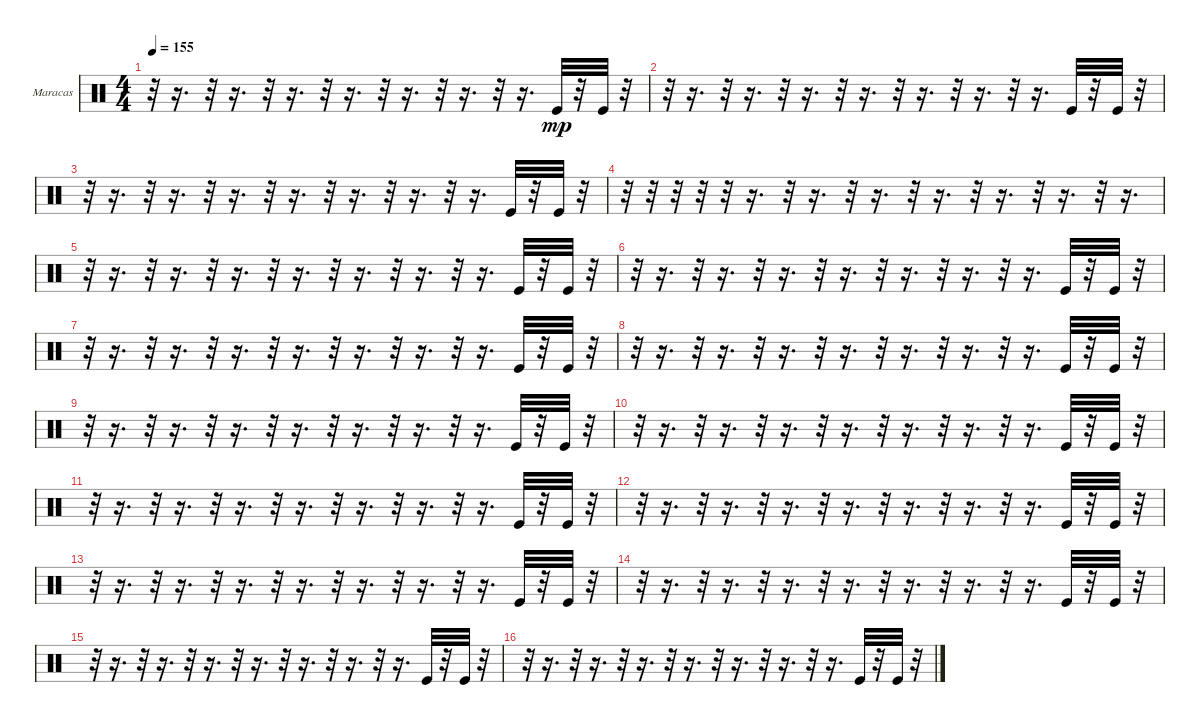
\bracketExtendMode groupsimilarinstruments
\firstSystemTrackNameOrientation horizontal
\otherSystemsTrackNameOrientation horizontal
\track ("Е. Кулаков" "Maracas") {instrument percussion}
\staff {score}
\articulation defaults
\ts (4 4)
\tempo 155
\clef neutral
\ks c
r.32{dy mp} r.16{d} r.32 r.16{d} r.32 r.16{d} r.32 r.16{d} r.32 r.16{d} r.32 r.16{d} r.32 r.16{d} "Kick (hit)".32 r.32 "Kick (hit)".32 r.32 |
r.32 r.16{d} r.32 r.16{d} r.32 r.16{d} r.32 r.16{d} r.32 r.16{d} r.32 r.16{d} r.32 r.16{d} "Kick (hit)".32 r.32 "Kick (hit)".32 r.32 |
r.32 r.16{d} r.32 r.16{d} r.32 r.16{d} r.32 r.16{d} r.32 r.16{d} r.32 r.16{d} r.32 r.16{d} "Kick (hit)".32 r.32 "Kick (hit)".32 r.32 |
r.32 r.32 r.32 r.32 r.32 r.16{d} r.32 r.16{d} r.32 r.16{d} r.32 r.16{d} r.32 r.16{d} r.32 r.16{d} r.32 r.16{d} |
r.32 r.16{d} r.32 r.16{d} r.32 r.16{d} r.32 r.16{d} r.32 r.16{d} r.32 r.16{d} r.32 r.16{d} "Kick (hit)".32 r.32 "Kick (hit)".32 r.32 |
r.32 r.16{d} r.32 r.16{d} r.32 r.16{d} r.32 r.16{d} r.32 r.16{d} r.32 r.16{d} r.32 r.16{d} "Kick (hit)".32 r.32 "Kick (hit)".32 r.32 |
r.32 r.16{d} r.32 r.16{d} r.32 r.16{d} r.32 r.16{d} r.32 r.16{d} r.32 r.16{d} r.32 r.16{d} "Kick (hit)".32 r.32 "Kick (hit)".32 r.32 |
r.32 r.16{d} r.32 r.16{d} r.32 r.16{d} r.32 r.16{d} r.32 r.16{d} r.32 r.16{d} r.32 r.16{d} "Kick (hit)".32 r.32 "Kick (hit)".32 r.32 |
r.32 r.16{d} r.32 r.16{d} r.32 r.16{d} r.32 r.16{d} r.32 r.16{d} r.32 r.16{d} r.32 r.16{d} "Kick (hit)".32 r.32 "Kick (hit)".32 r.32 |
r.32 r.16{d} r.32 r.16{d} r.32 r.16{d} r.32 r.16{d} r.32 r.16{d} r.32 r.16{d} r.32 r.16{d} "Kick (hit)".32 r.32 "Kick (hit)".32 r.32 |
r.32 r.16{d} r.32 r.16{d} r.32 r.16{d} r.32 r.16{d} r.32 r.16{d} r.32 r.16{d} r.32 r.16{d} "Kick (hit)".32 r.32 "Kick (hit)".32 r.32 |
r.32 r.16{d} r.32 r.16{d} r.32 r.16{d} r.32 r.16{d} r.32 r.16{d} r.32 r.16{d} r.32 r.16{d} "Kick (hit)".32 r.32 "Kick (hit)".32 r.32 |
r.32 r.16{d} r.32 r.16{d} r.32 r.16{d} r.32 r.16{d} r.32 r.16{d} r.32 r.16{d} r.32 r.16{d} "Kick (hit)".32 r.32 "Kick (hit)".32 r.32 |
r.32 r.16{d} r.32 r.16{d} r.32 r.16{d} r.32 r.16{d} r.32 r.16{d} r.32 r.16{d} r.32 r.16{d} "Kick (hit)".32 r.32 "Kick (hit)".32 r.32 |
r.32 r.16{d} r.32 r.16{d} r.32 r.16{d} r.32 r.16{d} r.32 r.16{d} r.32 r.16{d} r.32 r.16{d} "Kick (hit)".32 r.32 "Kick (hit)".32 r.32 |
r.32 r.16{d} r.32 r.16{d} r.32 r.16{d} r.32 r.16{d} r.32 r.16{d} r.32 r.16{d} r.32 r.16{d} "Kick (hit)".32 r.32 "Kick (hit)".32 r.32
